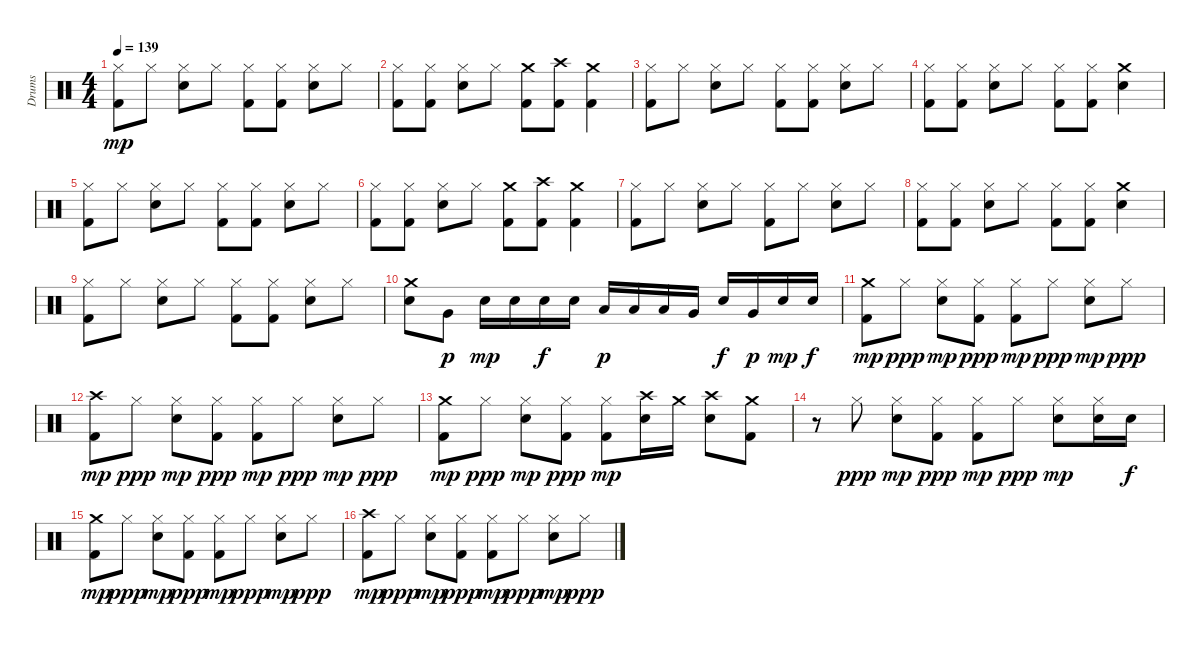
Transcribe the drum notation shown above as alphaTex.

\track ("Drums" "Drums") {instrument percussion}
\staff {score}
\articulation defaults
\ts (4 4)
\tempo 139
\clef neutral
\ks c
("Kick (hit) 2" "Hi-Hat (closed)").8{dy mp} "Hi-Hat (closed)".8 ("Hi-Hat (closed)" "Electric Snare (hit)").8 "Hi-Hat (closed)".8 ("Kick (hit) 2" "Hi-Hat (closed)").8 ("Kick (hit) 2" "Hi-Hat (closed)").8 ("Hi-Hat (closed)" "Electric Snare (hit)").8 "Hi-Hat (closed)".8 |
("Kick (hit) 2" "Hi-Hat (closed)").8 ("Kick (hit) 2" "Hi-Hat (closed)").8 ("Hi-Hat (closed)" "Electric Snare (hit)").8 "Hi-Hat (closed)".8 ("Kick (hit) 2" "Crash medium (hit)").8 ("Kick (hit) 2" "Crash high (hit)").8 ("Kick (hit) 2" "Crash medium (hit)").4 |
("Kick (hit) 2" "Hi-Hat (closed)").8 "Hi-Hat (closed)".8 ("Hi-Hat (closed)" "Electric Snare (hit)").8 "Hi-Hat (closed)".8 ("Kick (hit) 2" "Hi-Hat (closed)").8 ("Kick (hit) 2" "Hi-Hat (closed)").8 ("Hi-Hat (closed)" "Electric Snare (hit)").8 "Hi-Hat (closed)".8 |
("Kick (hit) 2" "Hi-Hat (closed)").8 ("Kick (hit) 2" "Hi-Hat (closed)").8 ("Hi-Hat (closed)" "Electric Snare (hit)").8 "Hi-Hat (closed)".8 ("Kick (hit) 2" "Hi-Hat (closed)").8 ("Kick (hit) 2" "Hi-Hat (closed)").8 ("Crash medium (hit)" "Electric Snare (hit)").4 |
("Kick (hit) 2" "Hi-Hat (closed)").8 "Hi-Hat (closed)".8 ("Hi-Hat (closed)" "Electric Snare (hit)").8 "Hi-Hat (closed)".8 ("Kick (hit) 2" "Hi-Hat (closed)").8 ("Kick (hit) 2" "Hi-Hat (closed)").8 ("Hi-Hat (closed)" "Electric Snare (hit)").8 "Hi-Hat (closed)".8 |
("Kick (hit) 2" "Hi-Hat (closed)").8 ("Kick (hit) 2" "Hi-Hat (closed)").8 ("Hi-Hat (closed)" "Electric Snare (hit)").8 "Hi-Hat (closed)".8 ("Kick (hit) 2" "Crash medium (hit)").8 ("Kick (hit) 2" "Crash high (hit)").8 ("Kick (hit) 2" "Crash medium (hit)").4 |
("Kick (hit) 2" "Hi-Hat (closed)").8 "Hi-Hat (closed)".8 ("Hi-Hat (closed)" "Electric Snare (hit)").8 "Hi-Hat (closed)".8 ("Kick (hit) 2" "Hi-Hat (closed)").8 "Hi-Hat (closed)".8 ("Hi-Hat (closed)" "Electric Snare (hit)").8 "Hi-Hat (closed)".8 |
("Kick (hit) 2" "Hi-Hat (closed)").8 ("Kick (hit) 2" "Hi-Hat (closed)").8 ("Hi-Hat (closed)" "Electric Snare (hit)").8 "Hi-Hat (closed)".8 ("Kick (hit) 2" "Hi-Hat (closed)").8 ("Kick (hit) 2" "Hi-Hat (closed)").8 ("Crash medium (hit)" "Electric Snare (hit)").4 |
("Kick (hit) 2" "Hi-Hat (closed)").8 "Hi-Hat (closed)".8 ("Hi-Hat (closed)" "Electric Snare (hit)").8 "Hi-Hat (closed)".8 ("Kick (hit) 2" "Hi-Hat (closed)").8 ("Kick (hit) 2" "Hi-Hat (closed)").8 ("Hi-Hat (closed)" "Electric Snare (hit)").8 "Hi-Hat (closed)".8 |
("Crash medium (hit)" "Electric Snare (hit)").8 "Very Low Tom (hit)".8{dy p} "Electric Snare (hit)".16{dy mp} "Electric Snare (hit)".16 "Electric Snare (hit)".16{dy f} "Electric Snare (hit)".16 "Low Tom (hit)".16{dy p} "Low Tom (hit)".16 "Low Tom (hit)".16 "Very Low Tom (hit)".16 "Electric Snare (hit)".16{dy f} "Very Low Tom (hit)".16{dy p} "Electric Snare (hit)".16{dy mp} "Electric Snare (hit)".16{dy f} |
("Kick (hit) 2" "Crash medium (hit)").8{dy mp} "Hi-Hat (closed)".8{dy ppp} ("Hi-Hat (closed)" "Electric Snare (hit)").8{dy mp} ("Kick (hit) 2" "Hi-Hat (closed)").8{dy ppp} ("Kick (hit) 2" "Hi-Hat (closed)").8{dy mp} "Hi-Hat (closed)".8{dy ppp} ("Hi-Hat (closed)" "Electric Snare (hit)").8{dy mp} "Hi-Hat (closed)".8{dy ppp} |
("Kick (hit) 2" "Crash high (hit)").8{dy mp} "Hi-Hat (closed)".8{dy ppp} ("Hi-Hat (closed)" "Electric Snare (hit)").8{dy mp} ("Kick (hit) 2" "Hi-Hat (closed)").8{dy ppp} ("Kick (hit) 2" "Hi-Hat (closed)").8{dy mp} "Hi-Hat (closed)".8{dy ppp} ("Hi-Hat (closed)" "Electric Snare (hit)").8{dy mp} "Hi-Hat (closed)".8{dy ppp} |
("Kick (hit) 2" "Crash medium (hit)").8{dy mp} "Hi-Hat (closed)".8{dy ppp} ("Hi-Hat (closed)" "Electric Snare (hit)").8{dy mp} ("Kick (hit) 2" "Hi-Hat (closed)").8{dy ppp} ("Kick (hit) 2" "Hi-Hat (closed)").8{dy mp} ("Crash high (hit)" "Electric Snare (hit)").16 "Crash medium (hit)".16 ("Crash high (hit)" "Electric Snare (hit)").8 ("Kick (hit) 2" "Crash medium (hit)").8 |
r.8 "Hi-Hat (closed)".8{dy ppp} ("Hi-Hat (closed)" "Electric Snare (hit)").8{dy mp} ("Kick (hit) 2" "Hi-Hat (closed)").8{dy ppp} ("Kick (hit) 2" "Hi-Hat (closed)").8{dy mp} "Hi-Hat (closed)".8{dy ppp} ("Hi-Hat (closed)" "Electric Snare (hit)").8{dy mp} ("Hi-Hat (closed)" "Electric Snare (hit)").16 "Electric Snare (hit)".16{dy f} |
("Kick (hit) 2" "Crash medium (hit)").8{dy mp} "Hi-Hat (closed)".8{dy ppp} ("Hi-Hat (closed)" "Electric Snare (hit)").8{dy mp} ("Kick (hit) 2" "Hi-Hat (closed)").8{dy ppp} ("Kick (hit) 2" "Hi-Hat (closed)").8{dy mp} "Hi-Hat (closed)".8{dy ppp} ("Hi-Hat (closed)" "Electric Snare (hit)").8{dy mp} "Hi-Hat (closed)".8{dy ppp} |
("Kick (hit) 2" "Crash high (hit)").8{dy mp} "Hi-Hat (closed)".8{dy ppp} ("Hi-Hat (closed)" "Electric Snare (hit)").8{dy mp} ("Kick (hit) 2" "Hi-Hat (closed)").8{dy ppp} ("Kick (hit) 2" "Hi-Hat (closed)").8{dy mp} "Hi-Hat (closed)".8{dy ppp} ("Hi-Hat (closed)" "Electric Snare (hit)").8{dy mp} "Hi-Hat (closed)".8{dy ppp}
